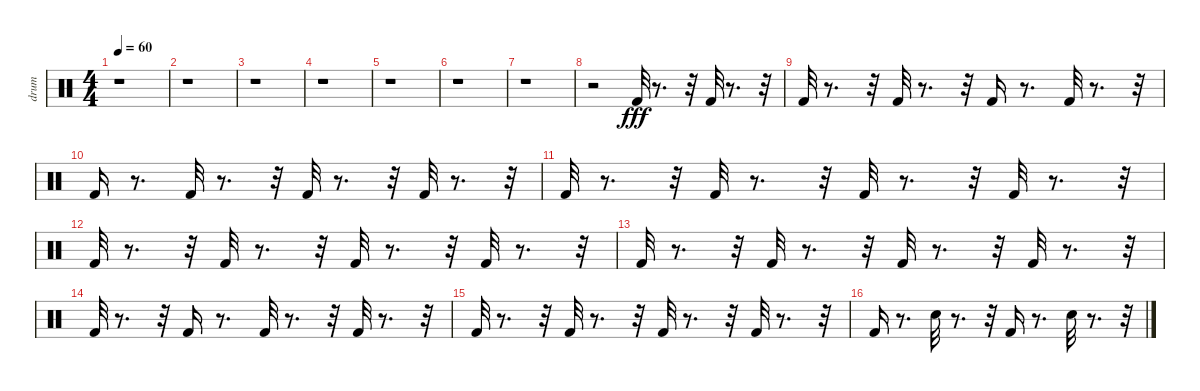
\track ("drum    " "drum    ") {instrument percussion}
\staff {score}
\articulation defaults
\ts (4 4)
\tempo 60
\clef neutral
\ks c
r.1{dy fff} |
r.1 |
r.1 |
r.1 |
r.1 |
r.1 |
r.1 |
r.2 "Kick (hit) 2".32 r.8{d} r.32 "Kick (hit) 2".32 r.8{d} r.32 |
"Kick (hit) 2".32 r.8{d} r.32 "Kick (hit) 2".32 r.8{d} r.32 "Kick (hit) 2".16 r.8{d} "Kick (hit) 2".32 r.8{d} r.32 |
"Kick (hit) 2".16 r.8{d} "Kick (hit) 2".32 r.8{d} r.32 "Kick (hit) 2".32 r.8{d} r.32 "Kick (hit) 2".32 r.8{d} r.32 |
"Kick (hit) 2".32 r.8{d} r.32 "Kick (hit) 2".32 r.8{d} r.32 "Kick (hit) 2".32 r.8{d} r.32 "Kick (hit) 2".32 r.8{d} r.32 |
"Kick (hit) 2".32 r.8{d} r.32 "Kick (hit) 2".32 r.8{d} r.32 "Kick (hit) 2".32 r.8{d} r.32 "Kick (hit) 2".32 r.8{d} r.32 |
"Kick (hit) 2".32 r.8{d} r.32 "Kick (hit) 2".32 r.8{d} r.32 "Kick (hit) 2".32 r.8{d} r.32 "Kick (hit) 2".32 r.8{d} r.32 |
"Kick (hit) 2".32 r.8{d} r.32 "Kick (hit) 2".16 r.8{d} "Kick (hit) 2".32 r.8{d} r.32 "Kick (hit) 2".32 r.8{d} r.32 |
"Kick (hit) 2".32 r.8{d} r.32 "Kick (hit) 2".32 r.8{d} r.32 "Kick (hit) 2".32 r.8{d} r.32 "Kick (hit) 2".32 r.8{d} r.32 |
"Kick (hit) 2".16 r.8{d} "Electric Snare (hit)".32 r.8{d} r.32 "Kick (hit) 2".16 r.8{d} "Electric Snare (hit)".32 r.8{d} r.32
